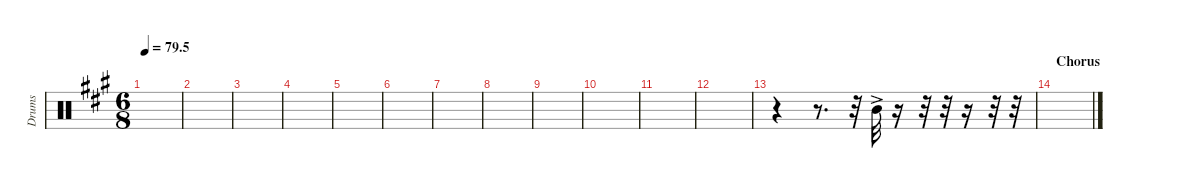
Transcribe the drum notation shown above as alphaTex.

\defaultSystemsLayout 4
\hideDynamics
\bracketExtendMode nobrackets
\otherSystemsTrackNameOrientation horizontal
\track ("Tom 02" "Drums") {instrument percussion}
\staff {score}
\articulation defaults
\ts (6 8)
\tempo
79.5
\accidentals auto
\clef neutral
\ottava regular
\simile none
\scale
0.333333
\ks a
|
\scale
0.333333 |
\scale
0.333333 |
\scale
0.333333 |
\scale
0.333333 |
\scale
0.333333 |
\scale
0.333333 |
\scale
0.333333 |
\scale
0.333333 |
\scale
0.333333 |
\scale
0.333333 |
\scale
0.333333 |
\scale
0.333333 r.4 r.8{d} r.32 "Mid Tom (hit)"{ac acc forcenatural}.32 r.16 r.32 r.32 r.16 r.32 r.32 |
\section ("" "Chorus")
\scale
0.333333 |
\scale
0.333333 |
\scale
0.333333
